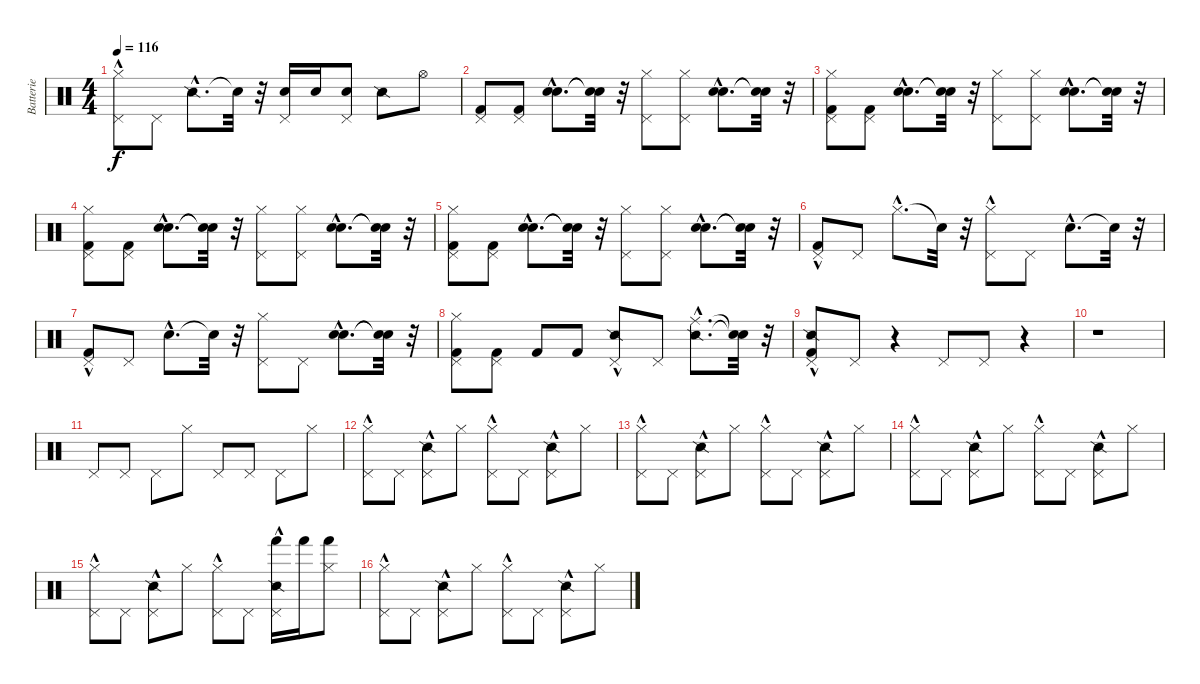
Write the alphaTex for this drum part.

\track ("Batterie" "Batterie") {instrument percussion}
\staff {score}
\articulation defaults
\ts (4 4)
\tempo 116
\clef neutral
\ks c
("Hi-Hat (closed)"{hac} "Pedal Hi-Hat (hit)").8{dy f} "Pedal Hi-Hat (hit)".8 "Snare (side stick) 2"{hac}.8{d} "Snare (hit)"{t}.32 r.32 ("Electric Snare (hit)" "Pedal Hi-Hat (hit)").16 "Electric Snare (hit)".16 ("Electric Snare (hit)" "Pedal Hi-Hat (hit)").8 "Snare (side stick) 2".8 "Hi-Hat (open)".8 |
("Kick (hit) 2" "Pedal Hi-Hat (hit)").8 ("Kick (hit) 2" "Pedal Hi-Hat (hit)").8 ("Snare (hit) 2"{hac} "Electric Snare (hit)"{hac}).8{d} ("Snare (hit)"{t} "Snare (hit)"{t}).32 r.32 ("Hi-Hat (closed)" "Pedal Hi-Hat (hit)").8 ("Hi-Hat (closed)" "Pedal Hi-Hat (hit)").8 ("Snare (hit) 2"{hac} "Electric Snare (hit)"{hac}).8{d} ("Snare (hit)"{t} "Snare (hit)"{t}).32 r.32 |
("Kick (hit) 2" "Hi-Hat (closed)" "Pedal Hi-Hat (hit)").8 ("Kick (hit) 2" "Pedal Hi-Hat (hit)").8 ("Snare (hit) 2"{hac} "Electric Snare (hit)"{hac}).8{d} ("Snare (hit)"{t} "Snare (hit)"{t}).32 r.32 ("Hi-Hat (closed)" "Pedal Hi-Hat (hit)").8 ("Hi-Hat (closed)" "Pedal Hi-Hat (hit)").8 ("Snare (hit) 2"{hac} "Electric Snare (hit)"{hac}).8{d} ("Snare (hit)"{t} "Snare (hit)"{t}).32 r.32 |
("Kick (hit) 2" "Hi-Hat (closed)" "Pedal Hi-Hat (hit)").8 ("Kick (hit) 2" "Pedal Hi-Hat (hit)").8 ("Snare (hit) 2"{hac} "Electric Snare (hit)"{hac}).8{d} ("Snare (hit)"{t} "Snare (hit)"{t}).32 r.32 ("Hi-Hat (closed)" "Pedal Hi-Hat (hit)").8 ("Hi-Hat (closed)" "Pedal Hi-Hat (hit)").8 ("Snare (hit) 2"{hac} "Electric Snare (hit)"{hac}).8{d} ("Snare (hit)"{t} "Snare (hit)"{t}).32 r.32 |
("Kick (hit) 2" "Hi-Hat (closed)" "Pedal Hi-Hat (hit)").8 ("Kick (hit) 2" "Pedal Hi-Hat (hit)").8 ("Snare (hit) 2"{hac} "Electric Snare (hit)"{hac}).8{d} ("Snare (hit)"{t} "Snare (hit)"{t}).32 r.32 ("Hi-Hat (closed)" "Pedal Hi-Hat (hit)").8 ("Hi-Hat (closed)" "Pedal Hi-Hat (hit)").8 ("Snare (hit) 2"{hac} "Electric Snare (hit)"{hac}).8{d} ("Snare (hit)"{t} "Snare (hit)"{t}).32 r.32 |
("Kick (hit) 2"{hac} "Pedal Hi-Hat (hit)").8 "Pedal Hi-Hat (hit)".8 "Hi-Hat (closed)"{hac}.8{d} "Snare (hit)"{t}.32 r.32 ("Hi-Hat (closed)"{hac} "Pedal Hi-Hat (hit)").8 "Pedal Hi-Hat (hit)".8 "Snare (hit) 2"{hac}.8{d} "Snare (hit)"{t}.32 r.32 |
("Kick (hit) 2"{hac} "Pedal Hi-Hat (hit)").8 "Pedal Hi-Hat (hit)".8 "Snare (hit) 2"{hac}.8{d} "Snare (hit)"{t}.32 r.32 ("Hi-Hat (closed)" "Pedal Hi-Hat (hit)").8 "Pedal Hi-Hat (hit)".8 ("Snare (hit) 2"{hac} "Electric Snare (hit)"{hac}).8{d} ("Snare (hit)"{t} "Snare (hit)"{t}).32 r.32 |
("Kick (hit) 2" "Hi-Hat (closed)" "Pedal Hi-Hat (hit)").8 ("Kick (hit) 2" "Pedal Hi-Hat (hit)").8 "Kick (hit) 2".8 "Kick (hit) 2".8 ("Snare (side stick) 2"{hac} "Pedal Hi-Hat (hit)").8 "Pedal Hi-Hat (hit)".8 ("Snare (side stick) 2"{hac} "Ride (middle)"{hac}).8{d} ("Snare (hit)"{t} "Snare (hit)"{t}).32 r.32 |
("Snare (side stick) 2"{hac} "Kick (hit) 2"{hac} "Pedal Hi-Hat (hit)").8 "Pedal Hi-Hat (hit)".8 r.4 "Pedal Hi-Hat (hit)".8 "Pedal Hi-Hat (hit)".8 r.4 |
r.1 |
"Pedal Hi-Hat (hit)".8 "Pedal Hi-Hat (hit)".8 "Pedal Hi-Hat (hit)".8 "Hi-Hat (closed)".8 "Pedal Hi-Hat (hit)".8 "Pedal Hi-Hat (hit)".8 "Pedal Hi-Hat (hit)".8 "Hi-Hat (closed)".8 |
("Hi-Hat (closed)"{hac} "Pedal Hi-Hat (hit)").8 "Pedal Hi-Hat (hit)".8 ("Snare (side stick) 2"{hac} "Pedal Hi-Hat (hit)").8 "Hi-Hat (closed)".8 ("Hi-Hat (closed)"{hac} "Pedal Hi-Hat (hit)").8 "Pedal Hi-Hat (hit)".8 ("Snare (side stick) 2"{hac} "Pedal Hi-Hat (hit)").8 "Hi-Hat (closed)".8 |
("Hi-Hat (closed)"{hac} "Pedal Hi-Hat (hit)").8 "Pedal Hi-Hat (hit)".8 ("Snare (side stick) 2"{hac} "Pedal Hi-Hat (hit)").8 "Hi-Hat (closed)".8 ("Hi-Hat (closed)"{hac} "Pedal Hi-Hat (hit)").8 "Pedal Hi-Hat (hit)".8 ("Snare (side stick) 2"{hac} "Pedal Hi-Hat (hit)").8 "Hi-Hat (closed)".8 |
("Hi-Hat (closed)"{hac} "Pedal Hi-Hat (hit)").8 "Pedal Hi-Hat (hit)".8 ("Snare (side stick) 2"{hac} "Pedal Hi-Hat (hit)").8 "Hi-Hat (closed)".8 ("Hi-Hat (closed)"{hac} "Pedal Hi-Hat (hit)").8 "Pedal Hi-Hat (hit)".8 ("Snare (side stick) 2"{hac} "Pedal Hi-Hat (hit)").8 "Hi-Hat (closed)".8 |
("Hi-Hat (closed)"{hac} "Pedal Hi-Hat (hit)").8 "Pedal Hi-Hat (hit)".8 ("Snare (side stick) 2"{hac} "Pedal Hi-Hat (hit)").8 "Hi-Hat (closed)".8 ("Hi-Hat (closed)"{hac} "Pedal Hi-Hat (hit)").8 "Pedal Hi-Hat (hit)".8 ("Snare (side stick) 2"{hac} "Hand (hit)" "Pedal Hi-Hat (hit)").16 "Hand (hit)".16 ("Hand (hit)" "Hi-Hat (closed)").8 |
("Hi-Hat (closed)"{hac} "Pedal Hi-Hat (hit)").8 "Pedal Hi-Hat (hit)".8 ("Snare (side stick) 2"{hac} "Pedal Hi-Hat (hit)").8 "Hi-Hat (closed)".8 ("Hi-Hat (closed)"{hac} "Pedal Hi-Hat (hit)").8 "Pedal Hi-Hat (hit)".8 ("Snare (side stick) 2"{hac} "Pedal Hi-Hat (hit)").8 "Hi-Hat (closed)".8
